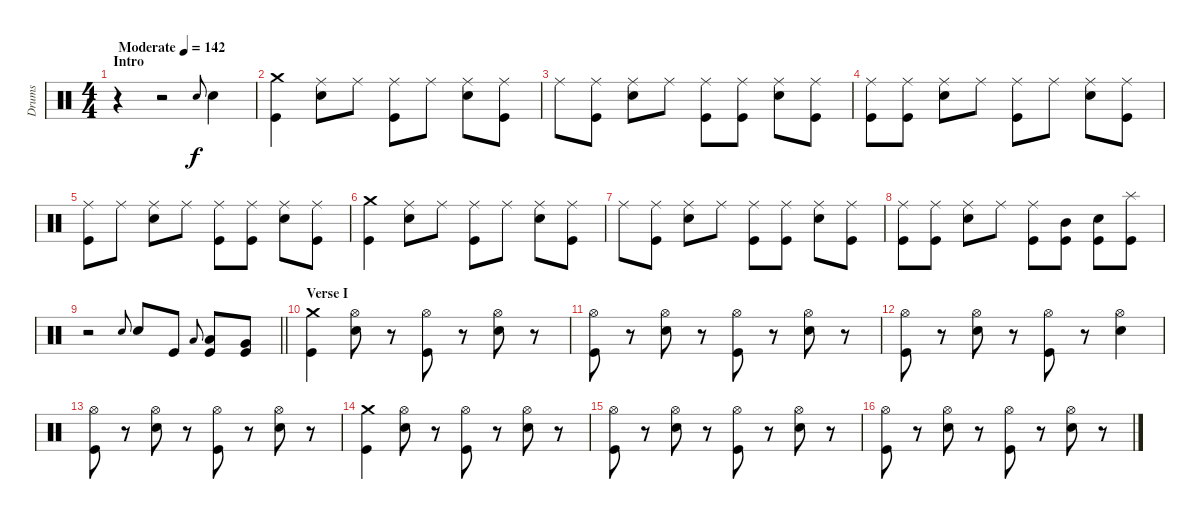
\track ("Drums" "Drums") {instrument percussion}
\staff {score}
\articulation defaults
\ts (4 4)
\section ("" "Intro")
\tempo (142 "Moderate")
\clef neutral
\ks c
r.4{dy f} r.2 "Electric Snare (hit)".8{gr onbeat} "Electric Snare (hit)".4 |
("Crash medium (hit)" "Kick (hit)").4 ("Ride (middle)" "Electric Snare (hit)").8 "Ride (middle)".8 ("Ride (middle)" "Kick (hit)").8 "Ride (middle)".8 ("Ride (middle)" "Electric Snare (hit)").8 ("Ride (middle)" "Kick (hit)").8 |
"Ride (middle)".8 ("Ride (middle)" "Kick (hit)").8 ("Ride (middle)" "Electric Snare (hit)").8 "Ride (middle)".8 ("Ride (middle)" "Kick (hit)").8 ("Ride (middle)" "Kick (hit)").8 ("Ride (middle)" "Electric Snare (hit)").8 ("Ride (middle)" "Kick (hit)").8 |
("Ride (middle)" "Kick (hit)").8 ("Ride (middle)" "Kick (hit)").8 ("Ride (middle)" "Electric Snare (hit)").8 "Ride (middle)".8 ("Ride (middle)" "Kick (hit)").8 "Ride (middle)".8 ("Ride (middle)" "Electric Snare (hit)").8 ("Ride (middle)" "Kick (hit)").8 |
("Ride (middle)" "Kick (hit)").8 "Ride (middle)".8 ("Ride (middle)" "Electric Snare (hit)").8 "Ride (middle)".8 ("Ride (middle)" "Kick (hit)").8 ("Ride (middle)" "Kick (hit)").8 ("Ride (middle)" "Electric Snare (hit)").8 ("Ride (middle)" "Kick (hit)").8 |
("Crash medium (hit)" "Kick (hit)").4 ("Ride (middle)" "Electric Snare (hit)").8 "Ride (middle)".8 ("Ride (middle)" "Kick (hit)").8 "Ride (middle)".8 ("Ride (middle)" "Electric Snare (hit)").8 ("Ride (middle)" "Kick (hit)").8 |
"Ride (middle)".8 ("Ride (middle)" "Kick (hit)").8 ("Ride (middle)" "Electric Snare (hit)").8 "Ride (middle)".8 ("Ride (middle)" "Kick (hit)").8 ("Ride (middle)" "Kick (hit)").8 ("Ride (middle)" "Electric Snare (hit)").8 ("Ride (middle)" "Kick (hit)").8 |
("Ride (middle)" "Kick (hit)").8 ("Ride (middle)" "Kick (hit)").8 ("Ride (middle)" "Electric Snare (hit)").8 "Ride (middle)".8 ("Ride (middle)" "Kick (hit)").8 ("Mid Tom (hit)" "Kick (hit)").8 ("Electric Snare (hit)" "Kick (hit)").8 ("Splash (hit)" "Kick (hit)").8 |
\barLineRight lightlight
r.2 "Electric Snare (hit)".8{gr onbeat} "Electric Snare (hit)".8 "Kick (hit)".8 "Low Tom (hit)".8{gr onbeat} ("Low Tom (hit)" "Kick (hit)").8 ("Very Low Tom (hit)" "Kick (hit)").8 |
\section ("" "Verse I")
("Crash medium (hit)" "Kick (hit)").4 ("Hi-Hat (open)" "Electric Snare (hit)").8 r.8 ("Hi-Hat (open)" "Kick (hit)").8 r.8 ("Hi-Hat (open)" "Electric Snare (hit)").8 r.8 |
("Hi-Hat (open)" "Kick (hit)").8 r.8 ("Hi-Hat (open)" "Electric Snare (hit)").8 r.8 ("Hi-Hat (open)" "Kick (hit)").8 r.8 ("Hi-Hat (open)" "Electric Snare (hit)").8 r.8 |
("Hi-Hat (open)" "Kick (hit)").8 r.8 ("Hi-Hat (open)" "Electric Snare (hit)").8 r.8 ("Hi-Hat (open)" "Kick (hit)").8 r.8 ("Hi-Hat (open)" "Electric Snare (hit)").4 |
("Hi-Hat (open)" "Kick (hit)").8 r.8 ("Hi-Hat (open)" "Electric Snare (hit)").8 r.8 ("Hi-Hat (open)" "Kick (hit)").8 r.8 ("Hi-Hat (open)" "Electric Snare (hit)").8 r.8 |
("Crash medium (hit)" "Kick (hit)").4 ("Hi-Hat (open)" "Electric Snare (hit)").8 r.8 ("Hi-Hat (open)" "Kick (hit)").8 r.8 ("Hi-Hat (open)" "Electric Snare (hit)").8 r.8 |
("Hi-Hat (open)" "Kick (hit)").8 r.8 ("Hi-Hat (open)" "Electric Snare (hit)").8 r.8 ("Hi-Hat (open)" "Kick (hit)").8 r.8 ("Hi-Hat (open)" "Electric Snare (hit)").8 r.8 |
("Hi-Hat (open)" "Kick (hit)").8 r.8 ("Hi-Hat (open)" "Electric Snare (hit)").8 r.8 ("Hi-Hat (open)" "Kick (hit)").8 r.8 ("Hi-Hat (open)" "Electric Snare (hit)").8 r.8
